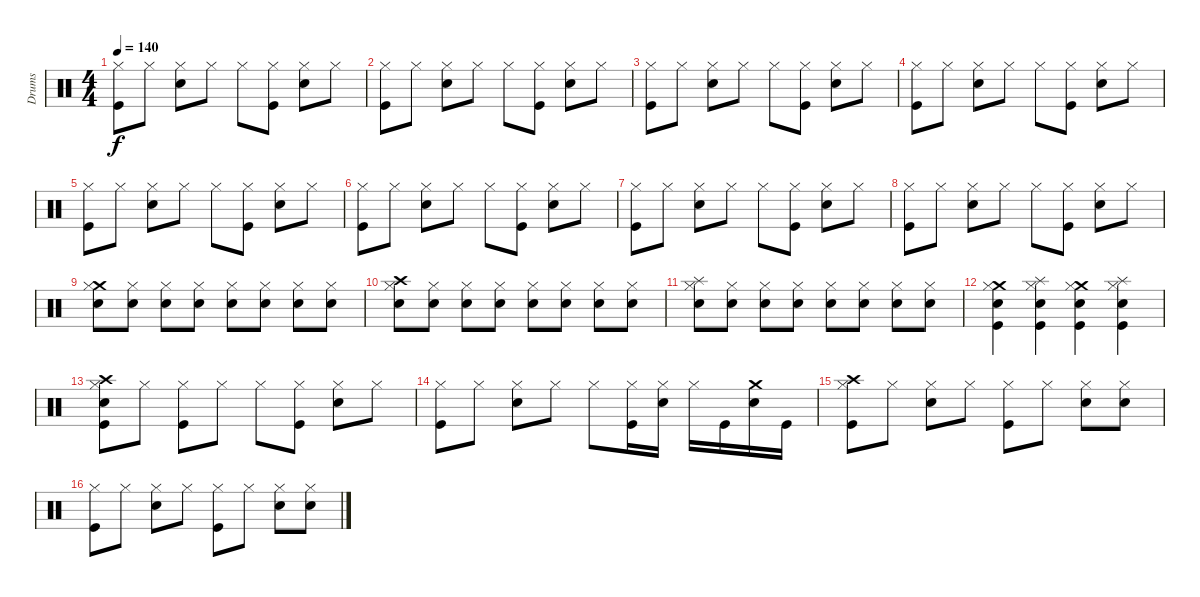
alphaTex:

\track ("Drums" "Drums") {instrument percussion}
\staff {score}
\articulation defaults
\ts (4 4)
\tempo 140
\clef neutral
\ks c
("Hi-Hat (closed)" "Kick (hit)").8{dy f} "Hi-Hat (closed)".8 ("Hi-Hat (closed)" "Electric Snare (hit)").8 "Hi-Hat (closed)".8 "Hi-Hat (closed)".8 ("Hi-Hat (closed)" "Kick (hit)").8 ("Hi-Hat (closed)" "Electric Snare (hit)").8 "Hi-Hat (closed)".8 |
("Hi-Hat (closed)" "Kick (hit)").8 "Hi-Hat (closed)".8 ("Hi-Hat (closed)" "Electric Snare (hit)").8 "Hi-Hat (closed)".8 "Hi-Hat (closed)".8 ("Hi-Hat (closed)" "Kick (hit)").8 ("Hi-Hat (closed)" "Electric Snare (hit)").8 "Hi-Hat (closed)".8 |
("Hi-Hat (closed)" "Kick (hit)").8 "Hi-Hat (closed)".8 ("Hi-Hat (closed)" "Electric Snare (hit)").8 "Hi-Hat (closed)".8 "Hi-Hat (closed)".8 ("Hi-Hat (closed)" "Kick (hit)").8 ("Hi-Hat (closed)" "Electric Snare (hit)").8 "Hi-Hat (closed)".8 |
("Hi-Hat (closed)" "Kick (hit)").8 "Hi-Hat (closed)".8 ("Hi-Hat (closed)" "Electric Snare (hit)").8 "Hi-Hat (closed)".8 "Hi-Hat (closed)".8 ("Hi-Hat (closed)" "Kick (hit)").8 ("Hi-Hat (closed)" "Electric Snare (hit)").8 "Hi-Hat (closed)".8 |
("Hi-Hat (closed)" "Kick (hit)").8 "Hi-Hat (closed)".8 ("Hi-Hat (closed)" "Electric Snare (hit)").8 "Hi-Hat (closed)".8 "Hi-Hat (closed)".8 ("Hi-Hat (closed)" "Kick (hit)").8 ("Hi-Hat (closed)" "Electric Snare (hit)").8 "Hi-Hat (closed)".8 |
("Hi-Hat (closed)" "Kick (hit)").8 "Hi-Hat (closed)".8 ("Hi-Hat (closed)" "Electric Snare (hit)").8 "Hi-Hat (closed)".8 "Hi-Hat (closed)".8 ("Hi-Hat (closed)" "Kick (hit)").8 ("Hi-Hat (closed)" "Electric Snare (hit)").8 "Hi-Hat (closed)".8 |
("Hi-Hat (closed)" "Kick (hit)").8 "Hi-Hat (closed)".8 ("Hi-Hat (closed)" "Electric Snare (hit)").8 "Hi-Hat (closed)".8 "Hi-Hat (closed)".8 ("Hi-Hat (closed)" "Kick (hit)").8 ("Hi-Hat (closed)" "Electric Snare (hit)").8 "Hi-Hat (closed)".8 |
("Hi-Hat (closed)" "Kick (hit)").8 "Hi-Hat (closed)".8 ("Hi-Hat (closed)" "Electric Snare (hit)").8 "Hi-Hat (closed)".8 "Hi-Hat (closed)".8 ("Hi-Hat (closed)" "Kick (hit)").8 ("Hi-Hat (closed)" "Electric Snare (hit)").8 "Hi-Hat (closed)".8 |
("Crash medium (hit)" "Hi-Hat (closed)" "Electric Snare (hit)").8 ("Hi-Hat (closed)" "Electric Snare (hit)").8 ("Hi-Hat (closed)" "Electric Snare (hit)").8 ("Hi-Hat (closed)" "Electric Snare (hit)").8 ("Hi-Hat (closed)" "Electric Snare (hit)").8 ("Hi-Hat (closed)" "Electric Snare (hit)").8 ("Hi-Hat (closed)" "Electric Snare (hit)").8 ("Hi-Hat (closed)" "Electric Snare (hit)").8 |
("Crash high (hit)" "Hi-Hat (closed)" "Electric Snare (hit)").8 ("Hi-Hat (closed)" "Electric Snare (hit)").8 ("Hi-Hat (closed)" "Electric Snare (hit)").8 ("Hi-Hat (closed)" "Electric Snare (hit)").8 ("Hi-Hat (closed)" "Electric Snare (hit)").8 ("Hi-Hat (closed)" "Electric Snare (hit)").8 ("Hi-Hat (closed)" "Electric Snare (hit)").8 ("Hi-Hat (closed)" "Electric Snare (hit)").8 |
("Splash (hit)" "Hi-Hat (closed)" "Electric Snare (hit)").8 ("Hi-Hat (closed)" "Electric Snare (hit)").8 ("Hi-Hat (closed)" "Electric Snare (hit)").8 ("Hi-Hat (closed)" "Electric Snare (hit)").8 ("Hi-Hat (closed)" "Electric Snare (hit)").8 ("Hi-Hat (closed)" "Electric Snare (hit)").8 ("Hi-Hat (closed)" "Electric Snare (hit)").8 ("Hi-Hat (closed)" "Electric Snare (hit)").8 |
("Crash medium (hit)" "Electric Snare (hit)" "Hi-Hat (closed)" "Kick (hit)").4 ("Splash (hit)" "Electric Snare (hit)" "Hi-Hat (closed)" "Kick (hit)").4 ("Crash medium (hit)" "Electric Snare (hit)" "Hi-Hat (closed)" "Kick (hit)").4 ("Splash (hit)" "Electric Snare (hit)" "Hi-Hat (closed)" "Kick (hit)").4 |
("Crash high (hit)" "Kick (hit)" "Hi-Hat (closed)" "Electric Snare (hit)").8 "Hi-Hat (closed)".8 ("Hi-Hat (closed)" "Kick (hit)").8 "Hi-Hat (closed)".8 "Hi-Hat (closed)".8 ("Hi-Hat (closed)" "Kick (hit)").8 ("Hi-Hat (closed)" "Electric Snare (hit)").8 "Hi-Hat (closed)".8 |
("Hi-Hat (closed)" "Kick (hit)").8 "Hi-Hat (closed)".8 ("Hi-Hat (closed)" "Electric Snare (hit)").8 "Hi-Hat (closed)".8 "Hi-Hat (closed)".8 ("Hi-Hat (closed)" "Kick (hit)").16 ("Hi-Hat (closed)" "Electric Snare (hit)").16 "Hi-Hat (closed)".16 "Kick (hit)".16 ("Crash medium (hit)" "Electric Snare (hit)").16 "Kick (hit)".16 |
("Crash high (hit)" "Hi-Hat (closed)" "Kick (hit)").8 "Hi-Hat (closed)".8 ("Hi-Hat (closed)" "Electric Snare (hit)").8 "Hi-Hat (closed)".8 ("Hi-Hat (closed)" "Kick (hit)").8 "Hi-Hat (closed)".8 ("Hi-Hat (closed)" "Electric Snare (hit)").8 ("Hi-Hat (closed)" "Electric Snare (hit)").8 |
("Hi-Hat (closed)" "Kick (hit)").8 "Hi-Hat (closed)".8 ("Hi-Hat (closed)" "Electric Snare (hit)").8 "Hi-Hat (closed)".8 ("Hi-Hat (closed)" "Kick (hit)").8 "Hi-Hat (closed)".8 ("Hi-Hat (closed)" "Electric Snare (hit)").8 ("Hi-Hat (closed)" "Electric Snare (hit)").8
